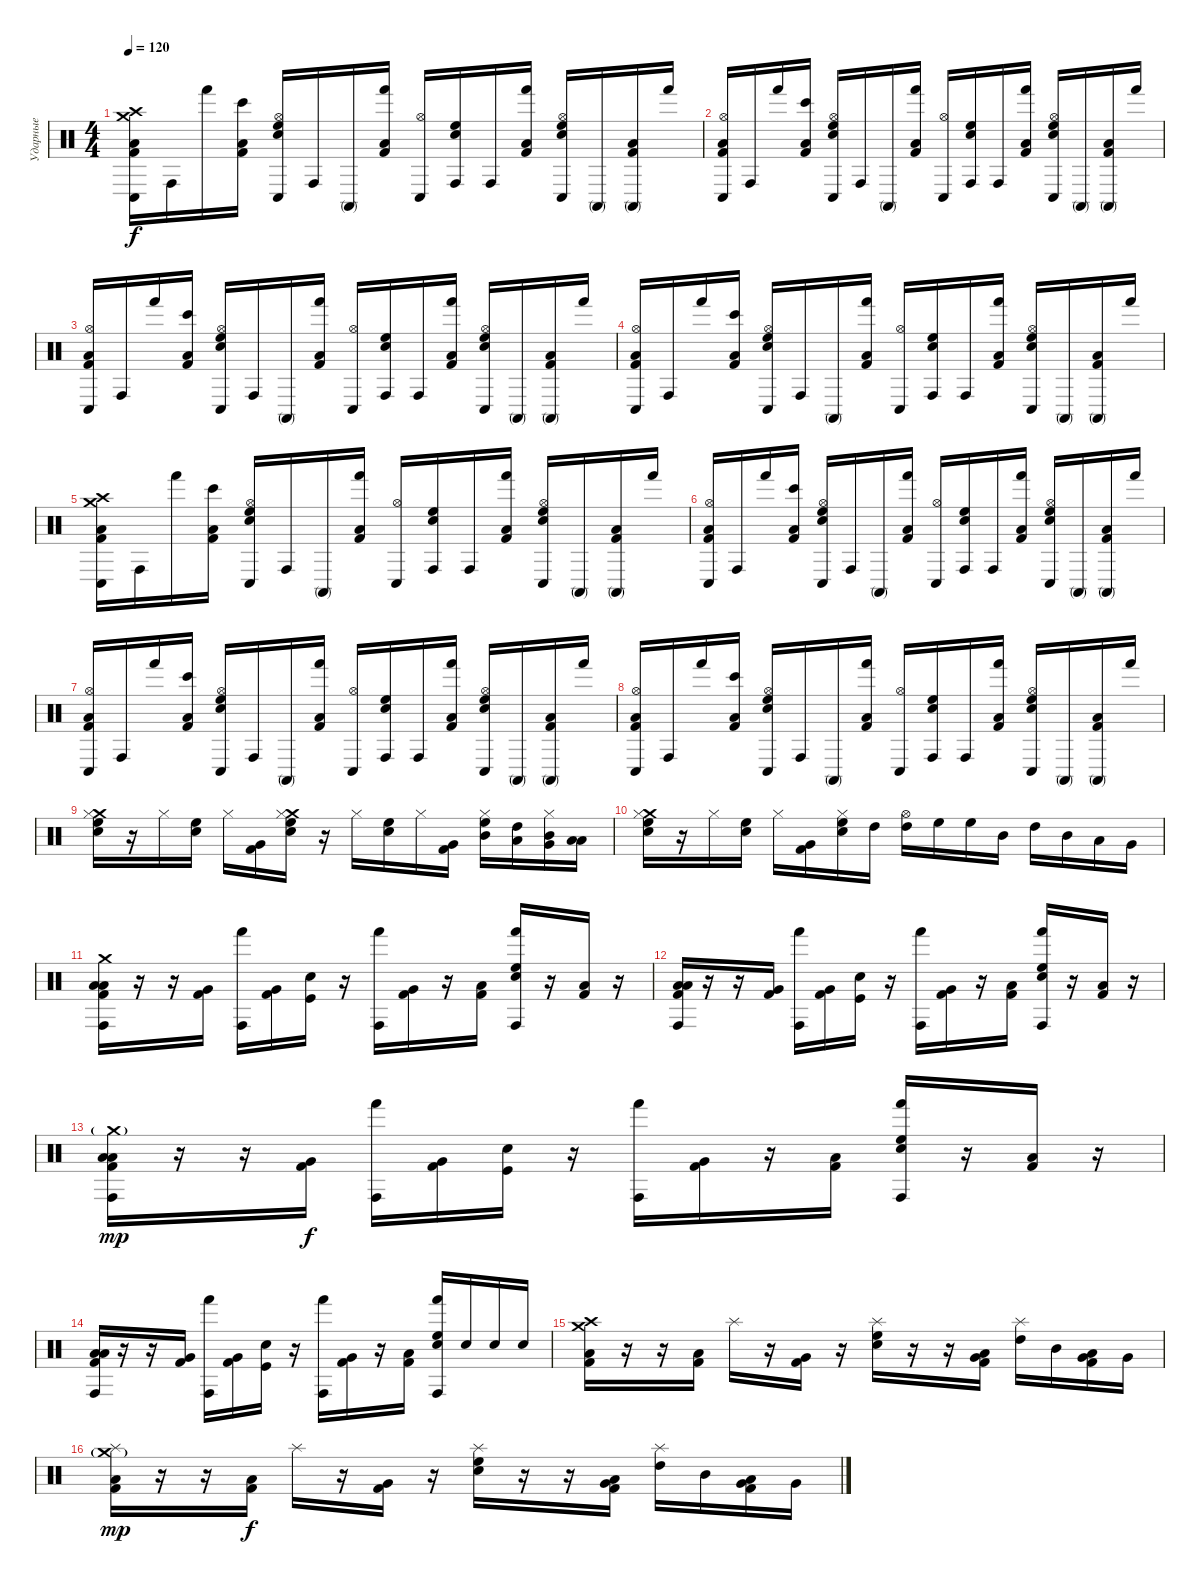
\track ("Ударные" "Ударные") {instrument percussion}
\staff
\articulation defaults
\ts (4 4)
\tempo 120
\clef neutral
\ks c
("Crash medium (hit)" "Crash high (hit)" "Conga low (hit)" "Low Floor Tom (hit)" "Kick (hit) 2").16{dy f} "Conga high (hit)".16 "Hand (hit)".16 ("Bongo High (hit)" "Low Floor Tom (hit)" "Kick (hit) 2").16 ("Hi-Hat (open)" "Conga low (hit)" "High Floor Tom (hit)" "Electric Snare (hit)").16 "Conga high (hit)".16 "Conga high (mute)".16 ("Hand (hit)" "Low Floor Tom (hit)" "Kick (hit) 2").16 ("Hi-Hat (open)" "Conga low (hit)").16 ("Conga high (hit)" "High Floor Tom (hit)" "Electric Snare (hit)").16 "Conga high (hit)".16 ("Hand (hit)" "Low Floor Tom (hit)" "Kick (hit) 2").16 ("Hi-Hat (open)" "Conga low (hit)" "High Floor Tom (hit)" "Electric Snare (hit)").16 "Conga high (mute)".16 ("Conga high (mute)" "Low Tom (hit)" "Kick (hit) 2").16 "Hand (hit)".16 |
("Hi-Hat (open)" "Conga low (hit)" "Low Floor Tom (hit)" "Kick (hit) 2").16 "Conga high (hit)".16 "Hand (hit)".16 ("Bongo High (hit)" "Low Floor Tom (hit)" "Kick (hit) 2").16 ("Hi-Hat (open)" "Conga low (hit)" "High Floor Tom (hit)" "Electric Snare (hit)").16 "Conga high (hit)".16 "Conga high (mute)".16 ("Hand (hit)" "Low Floor Tom (hit)" "Kick (hit) 2").16 ("Hi-Hat (open)" "Conga low (hit)").16 ("Conga high (hit)" "High Floor Tom (hit)" "Electric Snare (hit)").16 "Conga high (hit)".16 ("Hand (hit)" "Low Floor Tom (hit)" "Kick (hit) 2").16 ("Hi-Hat (open)" "Conga low (hit)" "High Floor Tom (hit)" "Electric Snare (hit)").16 "Conga high (mute)".16 ("Conga high (mute)" "Low Tom (hit)" "Kick (hit) 2").16 "Hand (hit)".16 |
("Hi-Hat (open)" "Conga low (hit)" "Low Floor Tom (hit)" "Kick (hit) 2").16 "Conga high (hit)".16 "Hand (hit)".16 ("Bongo High (hit)" "Low Floor Tom (hit)" "Kick (hit) 2").16 ("Hi-Hat (open)" "Conga low (hit)" "High Floor Tom (hit)" "Electric Snare (hit)").16 "Conga high (hit)".16 "Conga high (mute)".16 ("Hand (hit)" "Low Floor Tom (hit)" "Kick (hit) 2").16 ("Hi-Hat (open)" "Conga low (hit)").16 ("Conga high (hit)" "High Floor Tom (hit)" "Electric Snare (hit)").16 "Conga high (hit)".16 ("Hand (hit)" "Low Floor Tom (hit)" "Kick (hit) 2").16 ("Hi-Hat (open)" "Conga low (hit)" "High Floor Tom (hit)" "Electric Snare (hit)").16 "Conga high (mute)".16 ("Conga high (mute)" "Low Tom (hit)" "Kick (hit) 2").16 "Hand (hit)".16 |
("Hi-Hat (open)" "Conga low (hit)" "Low Floor Tom (hit)" "Kick (hit) 2").16 "Conga high (hit)".16 "Hand (hit)".16 ("Bongo High (hit)" "Low Floor Tom (hit)" "Kick (hit) 2").16 ("Hi-Hat (open)" "Conga low (hit)" "High Floor Tom (hit)" "Electric Snare (hit)").16 "Conga high (hit)".16 "Conga high (mute)".16 ("Hand (hit)" "Low Floor Tom (hit)" "Kick (hit) 2").16 ("Hi-Hat (open)" "Conga low (hit)").16 ("Conga high (hit)" "High Floor Tom (hit)" "Electric Snare (hit)").16 "Conga high (hit)".16 ("Hand (hit)" "Low Floor Tom (hit)" "Kick (hit) 2").16 ("Hi-Hat (open)" "Conga low (hit)" "High Floor Tom (hit)" "Electric Snare (hit)").16 "Conga high (mute)".16 ("Conga high (mute)" "Low Tom (hit)" "Kick (hit) 2").16 "Hand (hit)".16 |
("Crash medium (hit)" "Crash high (hit)" "Conga low (hit)" "Low Floor Tom (hit)" "Kick (hit) 2").16 "Conga high (hit)".16 "Hand (hit)".16 ("Bongo High (hit)" "Low Floor Tom (hit)" "Kick (hit) 2").16 ("Hi-Hat (open)" "Conga low (hit)" "High Floor Tom (hit)" "Electric Snare (hit)").16 "Conga high (hit)".16 "Conga high (mute)".16 ("Hand (hit)" "Low Floor Tom (hit)" "Kick (hit) 2").16 ("Hi-Hat (open)" "Conga low (hit)").16 ("Conga high (hit)" "High Floor Tom (hit)" "Electric Snare (hit)").16 "Conga high (hit)".16 ("Hand (hit)" "Low Floor Tom (hit)" "Kick (hit) 2").16 ("Hi-Hat (open)" "Conga low (hit)" "High Floor Tom (hit)" "Electric Snare (hit)").16 "Conga high (mute)".16 ("Conga high (mute)" "Low Tom (hit)" "Kick (hit) 2").16 "Hand (hit)".16 |
("Hi-Hat (open)" "Conga low (hit)" "Low Floor Tom (hit)" "Kick (hit) 2").16 "Conga high (hit)".16 "Hand (hit)".16 ("Bongo High (hit)" "Low Floor Tom (hit)" "Kick (hit) 2").16 ("Hi-Hat (open)" "Conga low (hit)" "High Floor Tom (hit)" "Electric Snare (hit)").16 "Conga high (hit)".16 "Conga high (mute)".16 ("Hand (hit)" "Low Floor Tom (hit)" "Kick (hit) 2").16 ("Hi-Hat (open)" "Conga low (hit)").16 ("Conga high (hit)" "High Floor Tom (hit)" "Electric Snare (hit)").16 "Conga high (hit)".16 ("Hand (hit)" "Low Floor Tom (hit)" "Kick (hit) 2").16 ("Hi-Hat (open)" "Conga low (hit)" "High Floor Tom (hit)" "Electric Snare (hit)").16 "Conga high (mute)".16 ("Conga high (mute)" "Low Tom (hit)" "Kick (hit) 2").16 "Hand (hit)".16 |
("Hi-Hat (open)" "Conga low (hit)" "Low Floor Tom (hit)" "Kick (hit) 2").16 "Conga high (hit)".16 "Hand (hit)".16 ("Bongo High (hit)" "Low Floor Tom (hit)" "Kick (hit) 2").16 ("Hi-Hat (open)" "Conga low (hit)" "High Floor Tom (hit)" "Electric Snare (hit)").16 "Conga high (hit)".16 "Conga high (mute)".16 ("Hand (hit)" "Low Floor Tom (hit)" "Kick (hit) 2").16 ("Hi-Hat (open)" "Conga low (hit)").16 ("Conga high (hit)" "High Floor Tom (hit)" "Electric Snare (hit)").16 "Conga high (hit)".16 ("Hand (hit)" "Low Floor Tom (hit)" "Kick (hit) 2").16 ("Hi-Hat (open)" "Conga low (hit)" "High Floor Tom (hit)" "Electric Snare (hit)").16 "Conga high (mute)".16 ("Conga high (mute)" "Low Tom (hit)" "Kick (hit) 2").16 "Hand (hit)".16 |
("Hi-Hat (open)" "Conga low (hit)" "Low Floor Tom (hit)" "Kick (hit) 2").16 "Conga high (hit)".16 "Hand (hit)".16 ("Bongo High (hit)" "Low Floor Tom (hit)" "Kick (hit) 2").16 ("Hi-Hat (open)" "Conga low (hit)" "High Floor Tom (hit)" "Electric Snare (hit)").16 "Conga high (hit)".16 "Conga high (mute)".16 ("Hand (hit)" "Low Floor Tom (hit)" "Kick (hit) 2").16 ("Hi-Hat (open)" "Conga low (hit)").16 ("Conga high (hit)" "High Floor Tom (hit)" "Electric Snare (hit)").16 "Conga high (hit)".16 ("Hand (hit)" "Low Floor Tom (hit)" "Kick (hit) 2").16 ("Hi-Hat (open)" "Conga low (hit)" "High Floor Tom (hit)" "Electric Snare (hit)").16 "Conga high (mute)".16 ("Conga high (mute)" "Low Tom (hit)" "Kick (hit) 2").16 "Hand (hit)".16 |
("Crash medium (hit)" "Hi-Hat (closed)" "High Floor Tom (hit)" "Electric Snare (hit)").16 r.16 "Hi-Hat (closed)".16 ("High Floor Tom (hit)" "Electric Snare (hit)").16 "Hi-Hat (closed)".16 ("Very Low Tom (hit)" "Kick (hit) 2").16 ("Crash medium (hit)" "Hi-Hat (closed)" "High Floor Tom (hit)" "Electric Snare (hit)").16 r.16 "Hi-Hat (closed)".16 ("High Floor Tom (hit)" "Electric Snare (hit)").16 "Hi-Hat (closed)".16 ("Very Low Tom (hit)" "Kick (hit) 2").16 ("Hi-Hat (closed)" "High Floor Tom (hit)" "Mid Tom (hit)").16{bd 60} ("High Tom (hit)" "Low Tom (hit)").16{bu 60} ("Hi-Hat (closed)" "Mid Tom (hit)" "Very Low Tom (hit)").16{bu 60} ("Low Tom (hit)" "Low Floor Tom (hit)").16{bd 60} |
("Crash medium (hit)" "Hi-Hat (closed)" "High Floor Tom (hit)" "Electric Snare (hit)").16 r.16 "Hi-Hat (closed)".16 ("High Floor Tom (hit)" "Electric Snare (hit)").16 "Hi-Hat (closed)".16 ("Very Low Tom (hit)" "Kick (hit) 2").16 ("Hi-Hat (closed)" "High Floor Tom (hit)" "Electric Snare (hit)").16 "High Tom (hit)".16 ("Hi-Hat (open)" "High Tom (hit)").16 "High Floor Tom (hit)".16 "High Floor Tom (hit)".16 "Mid Tom (hit)".16 "High Tom (hit)".16 "Mid Tom (hit)".16 "Low Tom (hit)".16 "Very Low Tom (hit)".16 |
("Crash medium (hit)" "Conga high (hit)" "Low Floor Tom (hit)" "Low Tom (hit)" "Kick (hit) 2").16 r.16 r.16 ("Very Low Tom (hit)" "Kick (hit) 2").16 ("Conga high (hit)" "Hand (hit)").16 ("Very Low Tom (hit)" "Kick (hit) 2").16 ("Kick (hit)" "Electric Snare (hit)").16 r.16 ("Conga high (hit)" "Hand (hit)").16 ("Very Low Tom (hit)" "Kick (hit) 2").16 r.16 ("Low Tom (hit)" "Kick (hit) 2").16 ("Conga high (hit)" "Hand (hit)" "High Floor Tom (hit)" "Electric Snare (hit)").16 r.16 ("Low Tom (hit)" "Kick (hit) 2").16 r.16 |
("Conga high (hit)" "Low Floor Tom (hit)" "Low Tom (hit)" "Kick (hit) 2").16 r.16 r.16 ("Very Low Tom (hit)" "Kick (hit) 2").16 ("Conga high (hit)" "Hand (hit)").16 ("Very Low Tom (hit)" "Kick (hit) 2").16 ("Kick (hit)" "Electric Snare (hit)").16 r.16 ("Conga high (hit)" "Hand (hit)").16 ("Very Low Tom (hit)" "Kick (hit) 2").16 r.16 ("Low Tom (hit)" "Kick (hit) 2").16 ("Conga high (hit)" "Hand (hit)" "High Floor Tom (hit)" "Electric Snare (hit)").16 r.16 ("Low Tom (hit)" "Kick (hit) 2").16 r.16 |
("Crash medium (hit)"{g} "Conga high (hit)" "Low Floor Tom (hit)" "Low Tom (hit)" "Kick (hit) 2").16{dy mp} r.16 r.16 ("Very Low Tom (hit)" "Kick (hit) 2").16{dy f} ("Conga high (hit)" "Hand (hit)").16 ("Very Low Tom (hit)" "Kick (hit) 2").16 ("Kick (hit)" "Electric Snare (hit)").16 r.16 ("Conga high (hit)" "Hand (hit)").16 ("Very Low Tom (hit)" "Kick (hit) 2").16 r.16 ("Low Tom (hit)" "Kick (hit) 2").16 ("Conga high (hit)" "Hand (hit)" "High Floor Tom (hit)" "Electric Snare (hit)").16 r.16 ("Low Tom (hit)" "Kick (hit) 2").16 r.16 |
("Conga high (hit)" "Low Floor Tom (hit)" "Low Tom (hit)" "Kick (hit) 2").16 r.16 r.16 ("Very Low Tom (hit)" "Kick (hit) 2").16 ("Conga high (hit)" "Hand (hit)").16 ("Very Low Tom (hit)" "Kick (hit) 2").16 ("Kick (hit)" "Electric Snare (hit)").16 r.16 ("Conga high (hit)" "Hand (hit)").16 ("Very Low Tom (hit)" "Kick (hit) 2").16 r.16 ("Low Tom (hit)" "Kick (hit) 2").16 ("Conga high (hit)" "Hand (hit)" "High Floor Tom (hit)" "Electric Snare (hit)").16 "Electric Snare (hit)".16 "Electric Snare (hit)".16 "Electric Snare (hit)".16 |
("Crash medium (hit)" "Crash high (hit)" "Low Tom (hit)" "Kick (hit) 2").16 r.16 r.16 ("Low Tom (hit)" "Kick (hit) 2").16 "Splash (hit)".16 r.16 ("Very Low Tom (hit)" "Kick (hit) 2").16 r.16 ("Splash (hit)" "High Floor Tom (hit)" "Electric Snare (hit)").16 r.16 r.16 ("Very Low Tom (hit)" "Low Tom (hit)" "Kick (hit) 2").16 ("Splash (hit)" "High Tom (hit)").16 "Mid Tom (hit)".16 ("Low Tom (hit)" "Very Low Tom (hit)" "Kick (hit) 2").16 "Very Low Tom (hit)".16 |
("Crash medium (hit)"{g} "Splash (hit)" "Low Tom (hit)" "Kick (hit) 2").16{dy mp} r.16 r.16 ("Low Tom (hit)" "Kick (hit) 2").16{dy f} "Splash (hit)".16 r.16 ("Very Low Tom (hit)" "Kick (hit) 2").16 r.16 ("Splash (hit)" "High Floor Tom (hit)" "Electric Snare (hit)").16 r.16 r.16 ("Very Low Tom (hit)" "Low Tom (hit)" "Kick (hit) 2").16 ("Splash (hit)" "High Tom (hit)").16 "Mid Tom (hit)".16 ("Low Tom (hit)" "Very Low Tom (hit)" "Kick (hit) 2").16 "Very Low Tom (hit)".16
